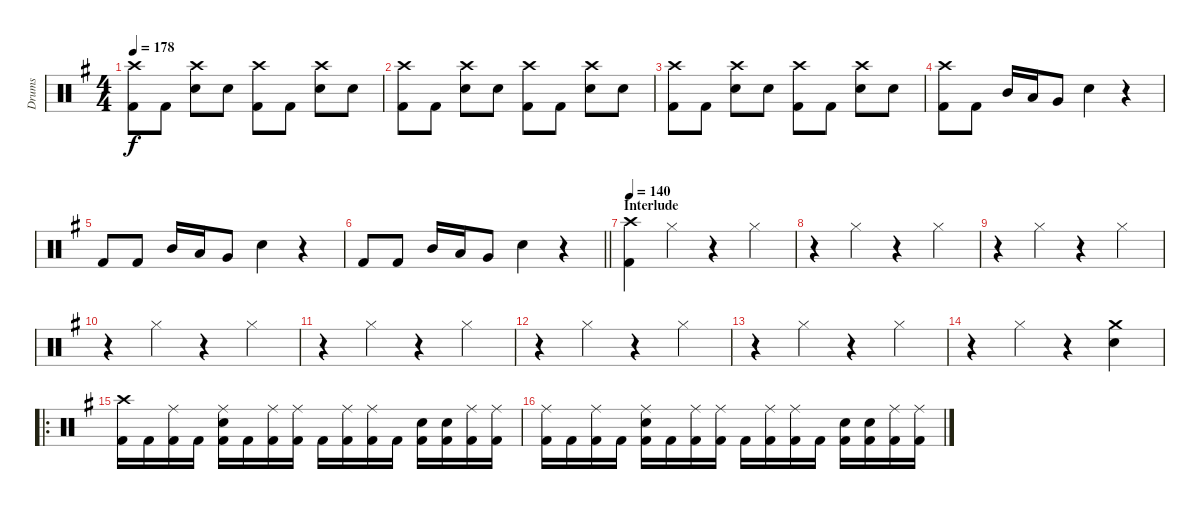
\track ("Drums" "Drums") {instrument percussion}
\staff {score}
\articulation defaults
\ts (4 4)
\tempo 178
\clef neutral
\ks g
("Kick (hit) 2" "Crash high (hit)").8{dy f} "Kick (hit) 2".8 ("Crash high (hit)" "Snare (hit) 2").8 "Snare (hit) 2".8 ("Kick (hit) 2" "Crash high (hit)").8 "Kick (hit) 2".8 ("Crash high (hit)" "Snare (hit) 2").8 "Snare (hit) 2".8 |
("Kick (hit) 2" "Crash high (hit)").8 "Kick (hit) 2".8 ("Crash high (hit)" "Snare (hit) 2").8 "Snare (hit) 2".8 ("Kick (hit) 2" "Crash high (hit)").8 "Kick (hit) 2".8 ("Crash high (hit)" "Snare (hit) 2").8 "Snare (hit) 2".8 |
("Kick (hit) 2" "Crash high (hit)").8 "Kick (hit) 2".8 ("Crash high (hit)" "Snare (hit) 2").8 "Snare (hit) 2".8 ("Kick (hit) 2" "Crash high (hit)").8 "Kick (hit) 2".8 ("Crash high (hit)" "Snare (hit) 2").8 "Snare (hit) 2".8 |
("Kick (hit) 2" "Crash high (hit)").8 "Kick (hit) 2".8 "Mid Tom (hit)".16 "Low Tom (hit)".16 "Very Low Tom (hit)".8 "Snare (hit) 2".4 r.4 |
"Kick (hit) 2".8 "Kick (hit) 2".8 "Mid Tom (hit)".16 "Low Tom (hit)".16 "Very Low Tom (hit)".8 "Snare (hit) 2".4 r.4 |
\barLineRight lightlight "Kick (hit) 2".8 "Kick (hit) 2".8 "Mid Tom (hit)".16 "Low Tom (hit)".16 "Very Low Tom (hit)".8 "Snare (hit) 2".4
r.4 |
\section ("" "Interlude")
\tempo 140
("Kick (hit) 2" "Crash high (hit)").4 "Hi-Hat (closed)".4 r.4 "Hi-Hat (closed)".4 |
r.4 "Hi-Hat (closed)".4 r.4 "Hi-Hat (closed)".4 |
r.4 "Hi-Hat (closed)".4 r.4 "Hi-Hat (closed)".4 |
r.4 "Hi-Hat (closed)".4 r.4 "Hi-Hat (closed)".4 |
r.4 "Hi-Hat (closed)".4 r.4 "Hi-Hat (closed)".4 |
r.4 "Hi-Hat (closed)".4 r.4 "Hi-Hat (closed)".4 |
r.4 "Hi-Hat (closed)".4 r.4 "Hi-Hat (closed)".4 |
r.4 "Hi-Hat (closed)".4 r.4 ("Crash medium (hit)" "Snare (hit) 2").4 |
\ro
("Kick (hit) 2" "Crash high (hit)").16 "Kick (hit) 2".16 ("Kick (hit) 2" "Ride (middle)").16 "Kick (hit) 2".16 ("Kick (hit) 2" "Ride (middle)" "Snare (hit) 2").16 "Kick (hit) 2".16 ("Kick (hit) 2" "Ride (middle)").16 ("Kick (hit) 2" "Ride (middle)").16 "Kick (hit) 2".16 ("Kick (hit) 2" "Ride (middle)").16 ("Kick (hit) 2" "Ride (middle)").16 "Kick (hit) 2".16 ("Kick (hit) 2" "Snare (hit) 2").16 ("Kick (hit) 2" "Snare (hit) 2").16 ("Kick (hit) 2" "Ride (middle)").16 ("Kick (hit) 2" "Ride (middle)").16 |
("Kick (hit) 2" "Ride (middle)").16 "Kick (hit) 2".16 ("Kick (hit) 2" "Ride (middle)").16 "Kick (hit) 2".16 ("Kick (hit) 2" "Ride (middle)" "Snare (hit) 2").16 "Kick (hit) 2".16 ("Kick (hit) 2" "Ride (middle)").16 ("Kick (hit) 2" "Ride (middle)").16 "Kick (hit) 2".16 ("Kick (hit) 2" "Ride (middle)").16 ("Kick (hit) 2" "Ride (middle)").16 "Kick (hit) 2".16 ("Kick (hit) 2" "Snare (hit) 2").16 ("Kick (hit) 2" "Snare (hit) 2").16 ("Kick (hit) 2" "Ride (middle)").16 ("Kick (hit) 2" "Ride (middle)").16
